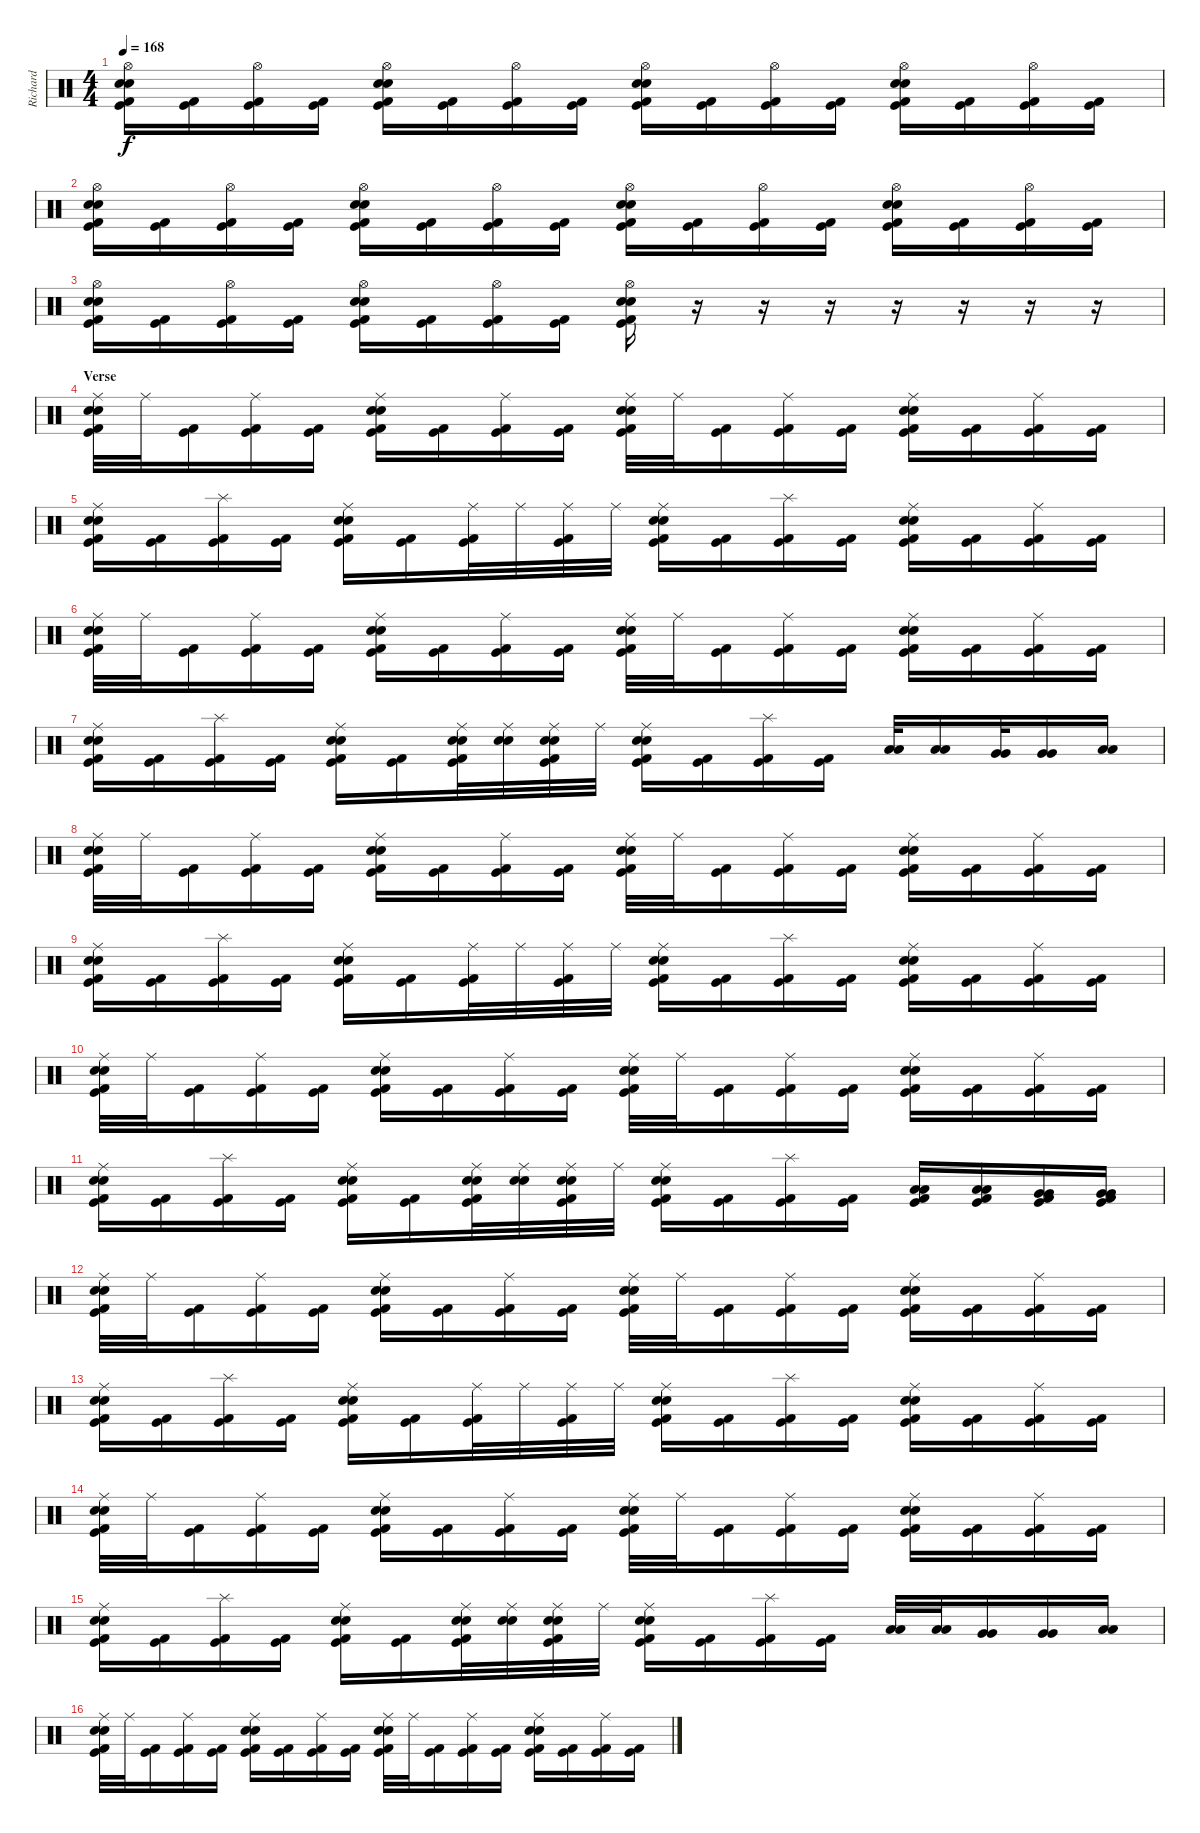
\track ("Richard" "Richard") {instrument percussion}
\staff {score}
\articulation defaults
\ts (4 4)
\tempo 168
\clef neutral
\ks c
("Hi-Hat (open)" "Snare (hit) 2" "Electric Snare (hit)" "Kick (hit)" "Kick (hit) 2").16{dy f} ("Kick (hit)" "Kick (hit) 2").16 ("Hi-Hat (open)" "Kick (hit)" "Kick (hit) 2").16 ("Kick (hit)" "Kick (hit) 2").16 ("Hi-Hat (open)" "Snare (hit) 2" "Electric Snare (hit)" "Kick (hit)" "Kick (hit) 2").16 ("Kick (hit)" "Kick (hit) 2").16 ("Hi-Hat (open)" "Kick (hit)" "Kick (hit) 2").16 ("Kick (hit)" "Kick (hit) 2").16 ("Hi-Hat (open)" "Snare (hit) 2" "Electric Snare (hit)" "Kick (hit)" "Kick (hit) 2").16 ("Kick (hit)" "Kick (hit) 2").16 ("Hi-Hat (open)" "Kick (hit)" "Kick (hit) 2").16 ("Kick (hit)" "Kick (hit) 2").16 ("Hi-Hat (open)" "Snare (hit) 2" "Electric Snare (hit)" "Kick (hit)" "Kick (hit) 2").16 ("Kick (hit)" "Kick (hit) 2").16 ("Hi-Hat (open)" "Kick (hit)" "Kick (hit) 2").16 ("Kick (hit)" "Kick (hit) 2").16 |
("Hi-Hat (open)" "Snare (hit) 2" "Electric Snare (hit)" "Kick (hit)" "Kick (hit) 2").16 ("Kick (hit)" "Kick (hit) 2").16 ("Hi-Hat (open)" "Kick (hit)" "Kick (hit) 2").16 ("Kick (hit)" "Kick (hit) 2").16 ("Hi-Hat (open)" "Snare (hit) 2" "Electric Snare (hit)" "Kick (hit)" "Kick (hit) 2").16 ("Kick (hit)" "Kick (hit) 2").16 ("Hi-Hat (open)" "Kick (hit)" "Kick (hit) 2").16 ("Kick (hit)" "Kick (hit) 2").16 ("Hi-Hat (open)" "Snare (hit) 2" "Electric Snare (hit)" "Kick (hit)" "Kick (hit) 2").16 ("Kick (hit)" "Kick (hit) 2").16 ("Hi-Hat (open)" "Kick (hit)" "Kick (hit) 2").16 ("Kick (hit)" "Kick (hit) 2").16 ("Hi-Hat (open)" "Snare (hit) 2" "Electric Snare (hit)" "Kick (hit)" "Kick (hit) 2").16 ("Kick (hit)" "Kick (hit) 2").16 ("Hi-Hat (open)" "Kick (hit)" "Kick (hit) 2").16 ("Kick (hit)" "Kick (hit) 2").16 |
("Hi-Hat (open)" "Snare (hit) 2" "Electric Snare (hit)" "Kick (hit)" "Kick (hit) 2").16 ("Kick (hit)" "Kick (hit) 2").16 ("Hi-Hat (open)" "Kick (hit)" "Kick (hit) 2").16 ("Kick (hit)" "Kick (hit) 2").16 ("Hi-Hat (open)" "Snare (hit) 2" "Electric Snare (hit)" "Kick (hit)" "Kick (hit) 2").16 ("Kick (hit)" "Kick (hit) 2").16 ("Hi-Hat (open)" "Kick (hit)" "Kick (hit) 2").16 ("Kick (hit)" "Kick (hit) 2").16 ("Hi-Hat (open)" "Snare (hit) 2" "Electric Snare (hit)" "Kick (hit)" "Kick (hit) 2").16 r.16 r.16 r.16 r.16 r.16 r.16 r.16 |
\section ("" "Verse")
("Ride (middle)" "Snare (hit) 2" "Electric Snare (hit)" "Kick (hit)" "Kick (hit) 2").32 "Ride (middle)".32 ("Kick (hit)" "Kick (hit) 2").16 ("Ride (middle)" "Kick (hit)" "Kick (hit) 2").16 ("Kick (hit)" "Kick (hit) 2").16 ("Ride (middle)" "Snare (hit) 2" "Electric Snare (hit)" "Kick (hit)" "Kick (hit) 2").16 ("Kick (hit)" "Kick (hit) 2").16 ("Ride (middle)" "Kick (hit)" "Kick (hit) 2").16 ("Kick (hit)" "Kick (hit) 2").16 ("Ride (middle)" "Snare (hit) 2" "Electric Snare (hit)" "Kick (hit)" "Kick (hit) 2").32 "Ride (middle)".32 ("Kick (hit)" "Kick (hit) 2").16 ("Ride (middle)" "Kick (hit)" "Kick (hit) 2").16 ("Kick (hit)" "Kick (hit) 2").16 ("Ride (middle)" "Snare (hit) 2" "Electric Snare (hit)" "Kick (hit)" "Kick (hit) 2").16 ("Kick (hit)" "Kick (hit) 2").16 ("Ride (middle)" "Kick (hit)" "Kick (hit) 2").16 ("Kick (hit)" "Kick (hit) 2").16 |
("Ride (middle)" "Snare (hit) 2" "Electric Snare (hit)" "Kick (hit)" "Kick (hit) 2").16 ("Kick (hit)" "Kick (hit) 2").16 ("Splash (hit)" "Kick (hit)" "Kick (hit) 2").16 ("Kick (hit)" "Kick (hit) 2").16 ("Ride (middle)" "Snare (hit) 2" "Electric Snare (hit)" "Kick (hit)" "Kick (hit) 2").16 ("Kick (hit)" "Kick (hit) 2").16 ("Ride (middle)" "Kick (hit)" "Kick (hit) 2").32 "Ride (middle)".32 ("Ride (middle)" "Kick (hit)" "Kick (hit) 2").32 "Ride (middle)".32 ("Ride (middle)" "Snare (hit) 2" "Electric Snare (hit)" "Kick (hit)" "Kick (hit) 2").16 ("Kick (hit)" "Kick (hit) 2").16 ("Splash (hit)" "Kick (hit)" "Kick (hit) 2").16 ("Kick (hit)" "Kick (hit) 2").16 ("Ride (middle)" "Snare (hit) 2" "Electric Snare (hit)" "Kick (hit)" "Kick (hit) 2").16 ("Kick (hit)" "Kick (hit) 2").16 ("Ride (middle)" "Kick (hit)" "Kick (hit) 2").16 ("Kick (hit)" "Kick (hit) 2").16 |
("Ride (middle)" "Snare (hit) 2" "Electric Snare (hit)" "Kick (hit)" "Kick (hit) 2").32 "Ride (middle)".32 ("Kick (hit)" "Kick (hit) 2").16 ("Ride (middle)" "Kick (hit)" "Kick (hit) 2").16 ("Kick (hit)" "Kick (hit) 2").16 ("Ride (middle)" "Snare (hit) 2" "Electric Snare (hit)" "Kick (hit)" "Kick (hit) 2").16 ("Kick (hit)" "Kick (hit) 2").16 ("Ride (middle)" "Kick (hit)" "Kick (hit) 2").16 ("Kick (hit)" "Kick (hit) 2").16 ("Ride (middle)" "Snare (hit) 2" "Electric Snare (hit)" "Kick (hit)" "Kick (hit) 2").32 "Ride (middle)".32 ("Kick (hit)" "Kick (hit) 2").16 ("Ride (middle)" "Kick (hit)" "Kick (hit) 2").16 ("Kick (hit)" "Kick (hit) 2").16 ("Ride (middle)" "Snare (hit) 2" "Electric Snare (hit)" "Kick (hit)" "Kick (hit) 2").16 ("Kick (hit)" "Kick (hit) 2").16 ("Ride (middle)" "Kick (hit)" "Kick (hit) 2").16 ("Kick (hit)" "Kick (hit) 2").16 |
("Ride (middle)" "Snare (hit) 2" "Electric Snare (hit)" "Kick (hit)" "Kick (hit) 2").16 ("Kick (hit)" "Kick (hit) 2").16 ("Splash (hit)" "Kick (hit)" "Kick (hit) 2").16 ("Kick (hit)" "Kick (hit) 2").16 ("Ride (middle)" "Snare (hit) 2" "Electric Snare (hit)" "Kick (hit)" "Kick (hit) 2").16 ("Kick (hit)" "Kick (hit) 2").16 ("Ride (middle)" "Snare (hit) 2" "Electric Snare (hit)" "Kick (hit)" "Kick (hit) 2").32 ("Ride (middle)" "Snare (hit) 2" "Electric Snare (hit)").32 ("Ride (middle)" "Snare (hit) 2" "Electric Snare (hit)" "Kick (hit)" "Kick (hit) 2").32 "Ride (middle)".32 ("Ride (middle)" "Snare (hit) 2" "Electric Snare (hit)" "Kick (hit)" "Kick (hit) 2").16 ("Kick (hit)" "Kick (hit) 2").16 ("Splash (hit)" "Kick (hit)" "Kick (hit) 2").16 ("Kick (hit)" "Kick (hit) 2").16 ("Low Tom (hit)" "Low Tom (hit)").32 ("Low Tom (hit)" "Low Tom (hit)").16 ("Very Low Tom (hit)" "Very Low Tom (hit)").32 ("Very Low Tom (hit)" "Very Low Tom (hit)").16 ("Low Floor Tom (hit)" "Low Floor Tom (hit)").16 |
("Ride (middle)" "Snare (hit) 2" "Electric Snare (hit)" "Kick (hit)" "Kick (hit) 2").32 "Ride (middle)".32 ("Kick (hit)" "Kick (hit) 2").16 ("Ride (middle)" "Kick (hit)" "Kick (hit) 2").16 ("Kick (hit)" "Kick (hit) 2").16 ("Ride (middle)" "Snare (hit) 2" "Electric Snare (hit)" "Kick (hit)" "Kick (hit) 2").16 ("Kick (hit)" "Kick (hit) 2").16 ("Ride (middle)" "Kick (hit)" "Kick (hit) 2").16 ("Kick (hit)" "Kick (hit) 2").16 ("Ride (middle)" "Snare (hit) 2" "Electric Snare (hit)" "Kick (hit)" "Kick (hit) 2").32 "Ride (middle)".32 ("Kick (hit)" "Kick (hit) 2").16 ("Ride (middle)" "Kick (hit)" "Kick (hit) 2").16 ("Kick (hit)" "Kick (hit) 2").16 ("Ride (middle)" "Snare (hit) 2" "Electric Snare (hit)" "Kick (hit)" "Kick (hit) 2").16 ("Kick (hit)" "Kick (hit) 2").16 ("Ride (middle)" "Kick (hit)" "Kick (hit) 2").16 ("Kick (hit)" "Kick (hit) 2").16 |
("Ride (middle)" "Snare (hit) 2" "Electric Snare (hit)" "Kick (hit)" "Kick (hit) 2").16 ("Kick (hit)" "Kick (hit) 2").16 ("Splash (hit)" "Kick (hit)" "Kick (hit) 2").16 ("Kick (hit)" "Kick (hit) 2").16 ("Ride (middle)" "Snare (hit) 2" "Electric Snare (hit)" "Kick (hit)" "Kick (hit) 2").16 ("Kick (hit)" "Kick (hit) 2").16 ("Ride (middle)" "Kick (hit)" "Kick (hit) 2").32 "Ride (middle)".32 ("Ride (middle)" "Kick (hit)" "Kick (hit) 2").32 "Ride (middle)".32 ("Ride (middle)" "Snare (hit) 2" "Electric Snare (hit)" "Kick (hit)" "Kick (hit) 2").16 ("Kick (hit)" "Kick (hit) 2").16 ("Splash (hit)" "Kick (hit)" "Kick (hit) 2").16 ("Kick (hit)" "Kick (hit) 2").16 ("Ride (middle)" "Snare (hit) 2" "Electric Snare (hit)" "Kick (hit)" "Kick (hit) 2").16 ("Kick (hit)" "Kick (hit) 2").16 ("Ride (middle)" "Kick (hit)" "Kick (hit) 2").16 ("Kick (hit)" "Kick (hit) 2").16 |
("Ride (middle)" "Snare (hit) 2" "Electric Snare (hit)" "Kick (hit)" "Kick (hit) 2").32 "Ride (middle)".32 ("Kick (hit)" "Kick (hit) 2").16 ("Ride (middle)" "Kick (hit)" "Kick (hit) 2").16 ("Kick (hit)" "Kick (hit) 2").16 ("Ride (middle)" "Snare (hit) 2" "Electric Snare (hit)" "Kick (hit)" "Kick (hit) 2").16 ("Kick (hit)" "Kick (hit) 2").16 ("Ride (middle)" "Kick (hit)" "Kick (hit) 2").16 ("Kick (hit)" "Kick (hit) 2").16 ("Ride (middle)" "Snare (hit) 2" "Electric Snare (hit)" "Kick (hit)" "Kick (hit) 2").32 "Ride (middle)".32 ("Kick (hit)" "Kick (hit) 2").16 ("Ride (middle)" "Kick (hit)" "Kick (hit) 2").16 ("Kick (hit)" "Kick (hit) 2").16 ("Ride (middle)" "Snare (hit) 2" "Electric Snare (hit)" "Kick (hit)" "Kick (hit) 2").16 ("Kick (hit)" "Kick (hit) 2").16 ("Ride (middle)" "Kick (hit)" "Kick (hit) 2").16 ("Kick (hit)" "Kick (hit) 2").16 |
("Ride (middle)" "Snare (hit) 2" "Electric Snare (hit)" "Kick (hit)" "Kick (hit) 2").16 ("Kick (hit)" "Kick (hit) 2").16 ("Splash (hit)" "Kick (hit)" "Kick (hit) 2").16 ("Kick (hit)" "Kick (hit) 2").16 ("Ride (middle)" "Snare (hit) 2" "Electric Snare (hit)" "Kick (hit)" "Kick (hit) 2").16 ("Kick (hit)" "Kick (hit) 2").16 ("Ride (middle)" "Snare (hit) 2" "Electric Snare (hit)" "Kick (hit)" "Kick (hit) 2").32 ("Ride (middle)" "Snare (hit) 2" "Electric Snare (hit)").32 ("Ride (middle)" "Snare (hit) 2" "Electric Snare (hit)" "Kick (hit)" "Kick (hit) 2").32 "Ride (middle)".32 ("Ride (middle)" "Snare (hit) 2" "Electric Snare (hit)" "Kick (hit)" "Kick (hit) 2").16 ("Kick (hit)" "Kick (hit) 2").16 ("Splash (hit)" "Kick (hit)" "Kick (hit) 2").16 ("Kick (hit)" "Kick (hit) 2").16 ("Low Tom (hit)" "Low Tom (hit)" "Kick (hit)" "Kick (hit) 2").16 ("Low Tom (hit)" "Low Tom (hit)" "Kick (hit)" "Kick (hit) 2").16 ("Very Low Tom (hit)" "Very Low Tom (hit)" "Kick (hit)" "Kick (hit) 2").16 ("Very Low Tom (hit)" "Very Low Tom (hit)" "Kick (hit)" "Kick (hit) 2").16 |
("Ride (middle)" "Snare (hit) 2" "Electric Snare (hit)" "Kick (hit)" "Kick (hit) 2").32 "Ride (middle)".32 ("Kick (hit)" "Kick (hit) 2").16 ("Ride (middle)" "Kick (hit)" "Kick (hit) 2").16 ("Kick (hit)" "Kick (hit) 2").16 ("Ride (middle)" "Snare (hit) 2" "Electric Snare (hit)" "Kick (hit)" "Kick (hit) 2").16 ("Kick (hit)" "Kick (hit) 2").16 ("Ride (middle)" "Kick (hit)" "Kick (hit) 2").16 ("Kick (hit)" "Kick (hit) 2").16 ("Ride (middle)" "Snare (hit) 2" "Electric Snare (hit)" "Kick (hit)" "Kick (hit) 2").32 "Ride (middle)".32 ("Kick (hit)" "Kick (hit) 2").16 ("Ride (middle)" "Kick (hit)" "Kick (hit) 2").16 ("Kick (hit)" "Kick (hit) 2").16 ("Ride (middle)" "Snare (hit) 2" "Electric Snare (hit)" "Kick (hit)" "Kick (hit) 2").16 ("Kick (hit)" "Kick (hit) 2").16 ("Ride (middle)" "Kick (hit)" "Kick (hit) 2").16 ("Kick (hit)" "Kick (hit) 2").16 |
("Ride (middle)" "Snare (hit) 2" "Electric Snare (hit)" "Kick (hit)" "Kick (hit) 2").16 ("Kick (hit)" "Kick (hit) 2").16 ("Splash (hit)" "Kick (hit)" "Kick (hit) 2").16 ("Kick (hit)" "Kick (hit) 2").16 ("Ride (middle)" "Snare (hit) 2" "Electric Snare (hit)" "Kick (hit)" "Kick (hit) 2").16 ("Kick (hit)" "Kick (hit) 2").16 ("Ride (middle)" "Kick (hit)" "Kick (hit) 2").32 "Ride (middle)".32 ("Ride (middle)" "Kick (hit)" "Kick (hit) 2").32 "Ride (middle)".32 ("Ride (middle)" "Snare (hit) 2" "Electric Snare (hit)" "Kick (hit)" "Kick (hit) 2").16 ("Kick (hit)" "Kick (hit) 2").16 ("Splash (hit)" "Kick (hit)" "Kick (hit) 2").16 ("Kick (hit)" "Kick (hit) 2").16 ("Ride (middle)" "Snare (hit) 2" "Electric Snare (hit)" "Kick (hit)" "Kick (hit) 2").16 ("Kick (hit)" "Kick (hit) 2").16 ("Ride (middle)" "Kick (hit)" "Kick (hit) 2").16 ("Kick (hit)" "Kick (hit) 2").16 |
("Ride (middle)" "Snare (hit) 2" "Electric Snare (hit)" "Kick (hit)" "Kick (hit) 2").32 "Ride (middle)".32 ("Kick (hit)" "Kick (hit) 2").16 ("Ride (middle)" "Kick (hit)" "Kick (hit) 2").16 ("Kick (hit)" "Kick (hit) 2").16 ("Ride (middle)" "Snare (hit) 2" "Electric Snare (hit)" "Kick (hit)" "Kick (hit) 2").16 ("Kick (hit)" "Kick (hit) 2").16 ("Ride (middle)" "Kick (hit)" "Kick (hit) 2").16 ("Kick (hit)" "Kick (hit) 2").16 ("Ride (middle)" "Snare (hit) 2" "Electric Snare (hit)" "Kick (hit)" "Kick (hit) 2").32 "Ride (middle)".32 ("Kick (hit)" "Kick (hit) 2").16 ("Ride (middle)" "Kick (hit)" "Kick (hit) 2").16 ("Kick (hit)" "Kick (hit) 2").16 ("Ride (middle)" "Snare (hit) 2" "Electric Snare (hit)" "Kick (hit)" "Kick (hit) 2").16 ("Kick (hit)" "Kick (hit) 2").16 ("Ride (middle)" "Kick (hit)" "Kick (hit) 2").16 ("Kick (hit)" "Kick (hit) 2").16 |
("Ride (middle)" "Snare (hit) 2" "Electric Snare (hit)" "Kick (hit)" "Kick (hit) 2").16 ("Kick (hit)" "Kick (hit) 2").16 ("Splash (hit)" "Kick (hit)" "Kick (hit) 2").16 ("Kick (hit)" "Kick (hit) 2").16 ("Ride (middle)" "Snare (hit) 2" "Electric Snare (hit)" "Kick (hit)" "Kick (hit) 2").16 ("Kick (hit)" "Kick (hit) 2").16 ("Ride (middle)" "Snare (hit) 2" "Electric Snare (hit)" "Kick (hit)" "Kick (hit) 2").32 ("Ride (middle)" "Snare (hit) 2" "Electric Snare (hit)").32 ("Ride (middle)" "Snare (hit) 2" "Electric Snare (hit)" "Kick (hit)" "Kick (hit) 2").32 "Ride (middle)".32 ("Ride (middle)" "Snare (hit) 2" "Electric Snare (hit)" "Kick (hit)" "Kick (hit) 2").16 ("Kick (hit)" "Kick (hit) 2").16 ("Splash (hit)" "Kick (hit)" "Kick (hit) 2").16 ("Kick (hit)" "Kick (hit) 2").16 ("Low Tom (hit)" "Low Tom (hit)").32 ("Low Tom (hit)" "Low Tom (hit)").32 ("Very Low Tom (hit)" "Very Low Tom (hit)").16 ("Very Low Tom (hit)" "Very Low Tom (hit)").16 ("Low Floor Tom (hit)" "Low Floor Tom (hit)").16 |
("Ride (middle)" "Snare (hit) 2" "Electric Snare (hit)" "Kick (hit)" "Kick (hit) 2").32 "Ride (middle)".32 ("Kick (hit)" "Kick (hit) 2").16 ("Ride (middle)" "Kick (hit)" "Kick (hit) 2").16 ("Kick (hit)" "Kick (hit) 2").16 ("Ride (middle)" "Snare (hit) 2" "Electric Snare (hit)" "Kick (hit)" "Kick (hit) 2").16 ("Kick (hit)" "Kick (hit) 2").16 ("Ride (middle)" "Kick (hit)" "Kick (hit) 2").16 ("Kick (hit)" "Kick (hit) 2").16 ("Ride (middle)" "Snare (hit) 2" "Electric Snare (hit)" "Kick (hit)" "Kick (hit) 2").32 "Ride (middle)".32 ("Kick (hit)" "Kick (hit) 2").16 ("Ride (middle)" "Kick (hit)" "Kick (hit) 2").16 ("Kick (hit)" "Kick (hit) 2").16 ("Ride (middle)" "Snare (hit) 2" "Electric Snare (hit)" "Kick (hit)" "Kick (hit) 2").16 ("Kick (hit)" "Kick (hit) 2").16 ("Ride (middle)" "Kick (hit)" "Kick (hit) 2").16 ("Kick (hit)" "Kick (hit) 2").16
